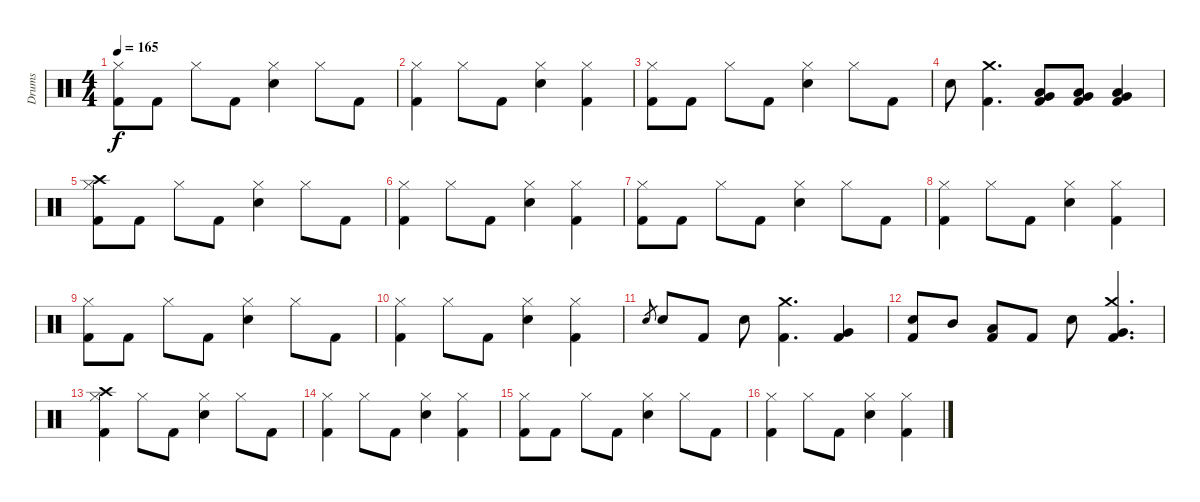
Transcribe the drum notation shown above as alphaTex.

\track ("Drums" "Drums") {instrument percussion}
\staff {score}
\articulation defaults
\ts (4 4)
\tempo 165
\clef neutral
\ks c
("Hi-Hat (closed)" "Kick (hit) 2").8{dy f} "Kick (hit) 2".8 "Hi-Hat (closed)".8 "Kick (hit) 2".8 ("Hi-Hat (closed)" "Electric Snare (hit)").4 "Hi-Hat (closed)".8 "Kick (hit) 2".8 |
("Hi-Hat (closed)" "Kick (hit) 2").4 "Hi-Hat (closed)".8 "Kick (hit) 2".8 ("Hi-Hat (closed)" "Electric Snare (hit)").4 ("Hi-Hat (closed)" "Kick (hit) 2").4 |
("Hi-Hat (closed)" "Kick (hit) 2").8 "Kick (hit) 2".8 "Hi-Hat (closed)".8 "Kick (hit) 2".8 ("Hi-Hat (closed)" "Electric Snare (hit)").4 "Hi-Hat (closed)".8 "Kick (hit) 2".8 |
"Electric Snare (hit)".8 ("Crash medium (hit)" "Kick (hit) 2").4{d} ("Low Tom (hit)" "Very Low Tom (hit)" "Kick (hit) 2").8 ("Low Tom (hit)" "Very Low Tom (hit)" "Kick (hit) 2").8 ("Low Tom (hit)" "Very Low Tom (hit)" "Kick (hit) 2").4 |
("Crash high (hit)" "Hi-Hat (closed)" "Kick (hit) 2").8 "Kick (hit) 2".8 "Hi-Hat (closed)".8 "Kick (hit) 2".8 ("Hi-Hat (closed)" "Electric Snare (hit)").4 "Hi-Hat (closed)".8 "Kick (hit) 2".8 |
("Hi-Hat (closed)" "Kick (hit) 2").4 "Hi-Hat (closed)".8 "Kick (hit) 2".8 ("Hi-Hat (closed)" "Electric Snare (hit)").4 ("Hi-Hat (closed)" "Kick (hit) 2").4 |
("Hi-Hat (closed)" "Kick (hit) 2").8 "Kick (hit) 2".8 "Hi-Hat (closed)".8 "Kick (hit) 2".8 ("Hi-Hat (closed)" "Electric Snare (hit)").4 "Hi-Hat (closed)".8 "Kick (hit) 2".8 |
("Hi-Hat (closed)" "Kick (hit) 2").4 "Hi-Hat (closed)".8 "Kick (hit) 2".8 ("Hi-Hat (closed)" "Electric Snare (hit)").4 ("Hi-Hat (closed)" "Kick (hit) 2").4 |
("Hi-Hat (closed)" "Kick (hit) 2").8 "Kick (hit) 2".8 "Hi-Hat (closed)".8 "Kick (hit) 2".8 ("Hi-Hat (closed)" "Electric Snare (hit)").4 "Hi-Hat (closed)".8 "Kick (hit) 2".8 |
("Hi-Hat (closed)" "Kick (hit) 2").4 "Hi-Hat (closed)".8 "Kick (hit) 2".8 ("Hi-Hat (closed)" "Electric Snare (hit)").4 ("Hi-Hat (closed)" "Kick (hit) 2").4 |
"Electric Snare (hit)".8{gr} "Electric Snare (hit)".8 "Kick (hit) 2".8 "Electric Snare (hit)".8 ("Crash medium (hit)" "Kick (hit) 2").4{d} ("Very Low Tom (hit)" "Kick (hit) 2").4 |
("Electric Snare (hit)" "Kick (hit) 2").8 "Mid Tom (hit)".8 ("Low Tom (hit)" "Kick (hit) 2").8 "Kick (hit) 2".8 "Electric Snare (hit)".8 ("Crash medium (hit)" "Very Low Tom (hit)" "Kick (hit) 2").4{d} |
("Crash high (hit)" "Hi-Hat (closed)" "Kick (hit) 2").4 "Hi-Hat (closed)".8 "Kick (hit) 2".8 ("Hi-Hat (closed)" "Electric Snare (hit)").4 "Hi-Hat (closed)".8 "Kick (hit) 2".8 |
("Hi-Hat (closed)" "Kick (hit) 2").4 "Hi-Hat (closed)".8 "Kick (hit) 2".8 ("Hi-Hat (closed)" "Electric Snare (hit)").4 ("Hi-Hat (closed)" "Kick (hit) 2").4 |
("Hi-Hat (closed)" "Kick (hit) 2").8 "Kick (hit) 2".8 "Hi-Hat (closed)".8 "Kick (hit) 2".8 ("Hi-Hat (closed)" "Electric Snare (hit)").4 "Hi-Hat (closed)".8 "Kick (hit) 2".8 |
("Hi-Hat (closed)" "Kick (hit) 2").4 "Hi-Hat (closed)".8 "Kick (hit) 2".8 ("Hi-Hat (closed)" "Electric Snare (hit)").4 ("Hi-Hat (closed)" "Kick (hit) 2").4
